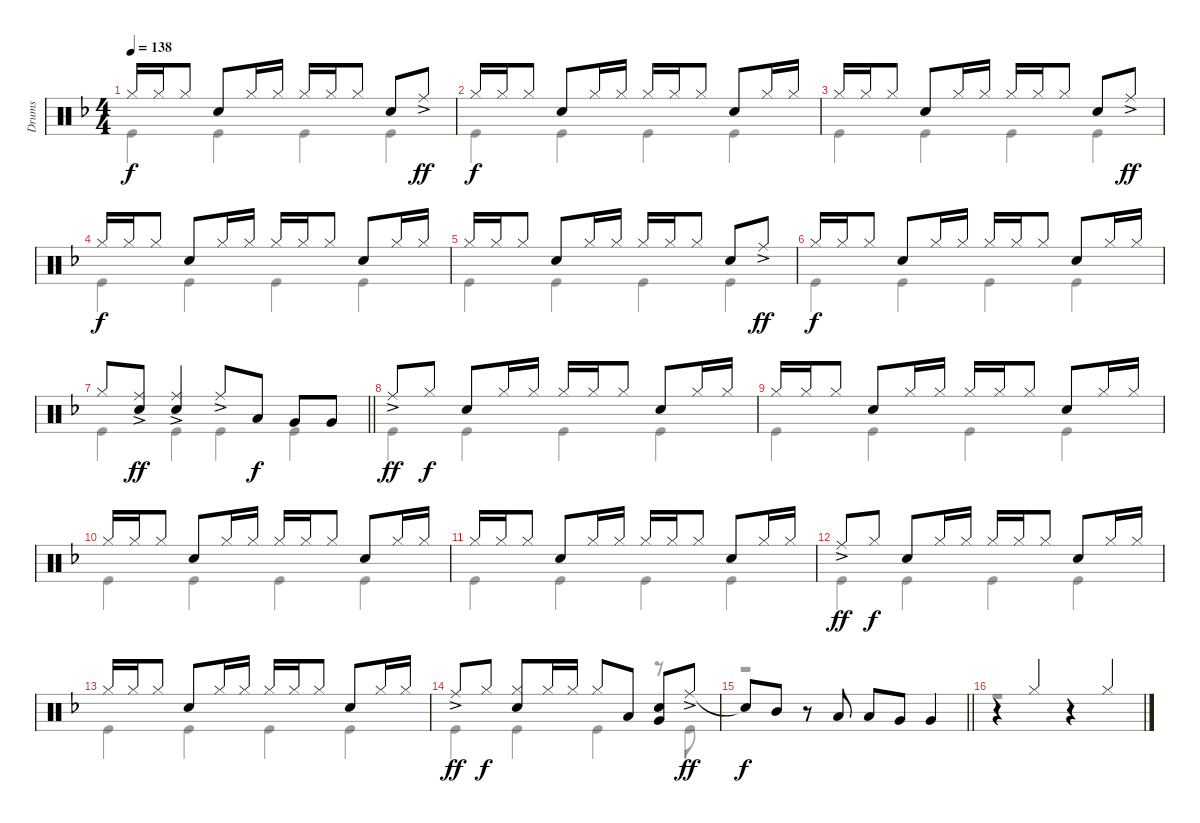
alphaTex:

\track ("Drums" "Drums") {instrument percussion}
\staff {score}
\articulation defaults
\voice
\ts (4 4)
\tempo 138
\clef neutral
\ks f "Hi-Hat (closed)".16{dy f} "Hi-Hat (closed)".16 "Hi-Hat (closed)".8 "Snare (hit) 2".8 "Hi-Hat (closed)".16 "Hi-Hat (closed)".16 "Hi-Hat (closed)".16 "Hi-Hat (closed)".16 "Hi-Hat (closed)".8 "Snare (hit) 2".8 "Ride (middle)"{ac}.8{dy ff}
|
"Hi-Hat (closed)".16{dy f} "Hi-Hat (closed)".16 "Hi-Hat (closed)".8 "Snare (hit) 2".8 "Hi-Hat (closed)".16 "Hi-Hat (closed)".16 "Hi-Hat (closed)".16 "Hi-Hat (closed)".16 "Hi-Hat (closed)".8 "Snare (hit) 2".8 "Hi-Hat (closed)".16 "Hi-Hat (closed)".16 |
"Hi-Hat (closed)".16 "Hi-Hat (closed)".16 "Hi-Hat (closed)".8 "Snare (hit) 2".8 "Hi-Hat (closed)".16 "Hi-Hat (closed)".16 "Hi-Hat (closed)".16 "Hi-Hat (closed)".16 "Hi-Hat (closed)".8 "Snare (hit) 2".8 "Ride (middle)"{ac}.8{dy ff} |
"Hi-Hat (closed)".16{dy f} "Hi-Hat (closed)".16 "Hi-Hat (closed)".8 "Snare (hit) 2".8 "Hi-Hat (closed)".16 "Hi-Hat (closed)".16 "Hi-Hat (closed)".16 "Hi-Hat (closed)".16 "Hi-Hat (closed)".8 "Snare (hit) 2".8 "Hi-Hat (closed)".16 "Hi-Hat (closed)".16 |
"Hi-Hat (closed)".16 "Hi-Hat (closed)".16 "Hi-Hat (closed)".8 "Snare (hit) 2".8 "Hi-Hat (closed)".16 "Hi-Hat (closed)".16 "Hi-Hat (closed)".16 "Hi-Hat (closed)".16 "Hi-Hat (closed)".8 "Snare (hit) 2".8 "Ride (middle)"{ac}.8{dy ff} |
"Hi-Hat (closed)".16{dy f} "Hi-Hat (closed)".16 "Hi-Hat (closed)".8 "Snare (hit) 2".8 "Hi-Hat (closed)".16 "Hi-Hat (closed)".16 "Hi-Hat (closed)".16 "Hi-Hat (closed)".16 "Hi-Hat (closed)".8 "Snare (hit) 2".8 "Hi-Hat (closed)".16 "Hi-Hat (closed)".16 |
\barLineRight lightlight "Hi-Hat (closed)".8
("Ride (middle)"{ac} "Snare (hit) 2").8{dy ff} ("Ride (middle)"{ac} "Snare (hit) 2").4 "Ride (middle)"{ac}.8 "Low Tom (hit)".8{dy f} "Very Low Tom (hit)".8 "Very Low Tom (hit)".8 |
"Ride (middle)"{ac}.8{dy ff} "Hi-Hat (closed)".8{dy f} "Snare (hit) 2".8 "Hi-Hat (closed)".16 "Hi-Hat (closed)".16 "Hi-Hat (closed)".16 "Hi-Hat (closed)".16 "Hi-Hat (closed)".8 "Snare (hit) 2".8 "Hi-Hat (closed)".16 "Hi-Hat (closed)".16 |
"Hi-Hat (closed)".16 "Hi-Hat (closed)".16 "Hi-Hat (closed)".8 "Snare (hit) 2".8 "Hi-Hat (closed)".16 "Hi-Hat (closed)".16 "Hi-Hat (closed)".16 "Hi-Hat (closed)".16 "Hi-Hat (closed)".8 "Snare (hit) 2".8 "Hi-Hat (closed)".16 "Hi-Hat (closed)".16 |
"Hi-Hat (closed)".16 "Hi-Hat (closed)".16 "Hi-Hat (closed)".8 "Snare (hit) 2".8 "Hi-Hat (closed)".16 "Hi-Hat (closed)".16 "Hi-Hat (closed)".16 "Hi-Hat (closed)".16 "Hi-Hat (closed)".8 "Snare (hit) 2".8 "Hi-Hat (closed)".16 "Hi-Hat (closed)".16 |
"Hi-Hat (closed)".16 "Hi-Hat (closed)".16 "Hi-Hat (closed)".8 "Snare (hit) 2".8 "Hi-Hat (closed)".16 "Hi-Hat (closed)".16 "Hi-Hat (closed)".16 "Hi-Hat (closed)".16 "Hi-Hat (closed)".8 "Snare (hit) 2".8 "Hi-Hat (closed)".16 "Hi-Hat (closed)".16 |
"Ride (middle)"{ac}.8{dy ff} "Hi-Hat (closed)".8{dy f} "Snare (hit) 2".8 "Hi-Hat (closed)".16 "Hi-Hat (closed)".16 "Hi-Hat (closed)".16 "Hi-Hat (closed)".16 "Hi-Hat (closed)".8 "Snare (hit) 2".8 "Hi-Hat (closed)".16 "Hi-Hat (closed)".16 |
"Hi-Hat (closed)".16 "Hi-Hat (closed)".16 "Hi-Hat (closed)".8 "Snare (hit) 2".8 "Hi-Hat (closed)".16 "Hi-Hat (closed)".16 "Hi-Hat (closed)".16 "Hi-Hat (closed)".16 "Hi-Hat (closed)".8 "Snare (hit) 2".8 "Hi-Hat (closed)".16 "Hi-Hat (closed)".16 |
"Ride (middle)"{ac}.8{dy ff} "Hi-Hat (closed)".8{dy f} ("Hi-Hat (closed)" "Snare (hit) 2").8 "Hi-Hat (closed)".16 "Hi-Hat (closed)".16 "Hi-Hat (closed)".8 "Low Tom (hit)".8 ("Snare (hit) 2" "Very Low Tom (hit)").8 "Ride (middle)"{ac}.8{dy ff} |
\barLineRight lightlight "Snare (hit)"{t}.8{dy f} "Mid Tom (hit)".8
r.8 "Low Tom (hit)".8 "Low Tom (hit)".8 "Very Low Tom (hit)".8 "Very Low Tom (hit)".4 |
r.4 "Hi-Hat (closed)".4 r.4 "Hi-Hat (closed)".4
\voice
\clef neutral
\ottava regular
\simile none
\ks f "Kick (hit)".4{dy f} "Kick (hit)".4 "Kick (hit)".4 "Kick (hit)".4
|
"Kick (hit)".4 "Kick (hit)".4 "Kick (hit)".4 "Kick (hit)".4 |
"Kick (hit)".4 "Kick (hit)".4 "Kick (hit)".4 "Kick (hit)".4 |
"Kick (hit)".4 "Kick (hit)".4 "Kick (hit)".4 "Kick (hit)".4 |
"Kick (hit)".4 "Kick (hit)".4 "Kick (hit)".4 "Kick (hit)".4 |
"Kick (hit)".4 "Kick (hit)".4 "Kick (hit)".4 "Kick (hit)".4 |
\barLineRight lightlight "Kick (hit)".4 "Kick (hit)".4 "Kick (hit)".4 "Kick (hit)".4
|
"Kick (hit)".4 "Kick (hit)".4 "Kick (hit)".4 "Kick (hit)".4 |
"Kick (hit)".4 "Kick (hit)".4 "Kick (hit)".4 "Kick (hit)".4 |
"Kick (hit)".4 "Kick (hit)".4 "Kick (hit)".4 "Kick (hit)".4 |
"Kick (hit)".4 "Kick (hit)".4 "Kick (hit)".4 "Kick (hit)".4 |
"Kick (hit)".4 "Kick (hit)".4 "Kick (hit)".4 "Kick (hit)".4 |
"Kick (hit)".4 "Kick (hit)".4 "Kick (hit)".4 "Kick (hit)".4 |
"Kick (hit)".4 "Kick (hit)".4 "Kick (hit)".4 r.8 "Kick (hit)".8 |
\barLineRight lightlight
r.1 |
r.1
